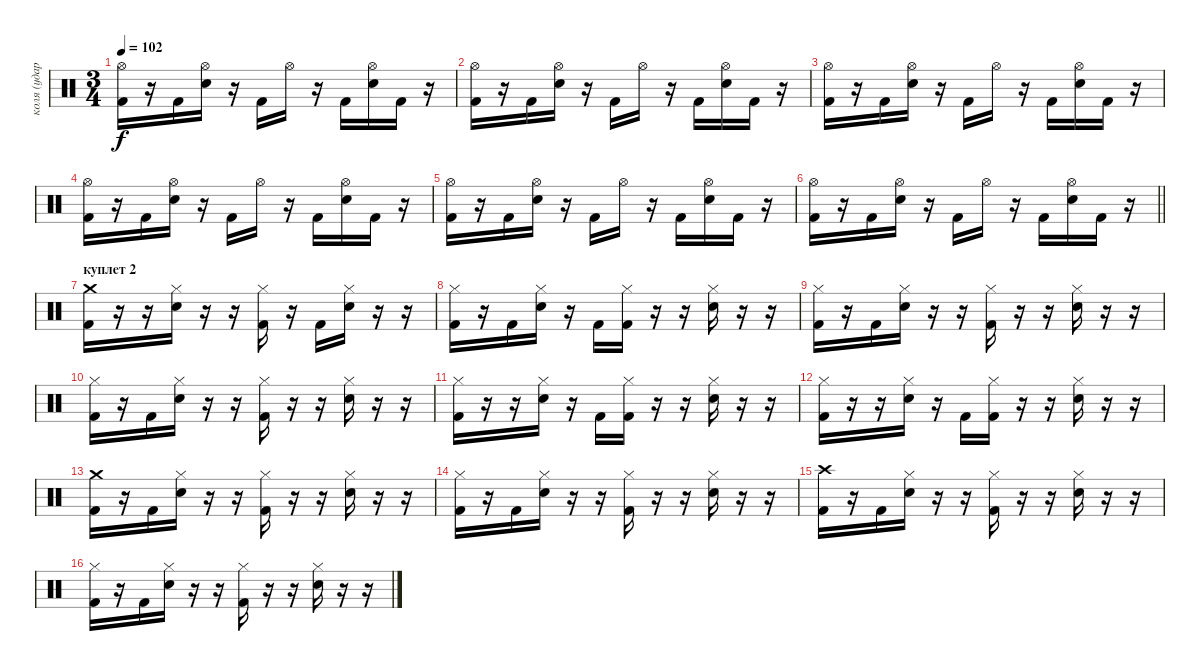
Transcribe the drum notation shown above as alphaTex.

\track ("коля (ударные)" "коля (удар") {instrument percussion}
\staff {score}
\articulation defaults
\ts (3 4)
\tempo 102
\clef neutral
\ks c
("Kick (hit) 2" "Hi-Hat (open)").16{dy f} r.16 "Kick (hit) 2".16 ("Snare (hit) 2" "Hi-Hat (open)").16 r.16 "Kick (hit) 2".16 "Hi-Hat (open)".16 r.16 "Kick (hit) 2".16 ("Snare (hit) 2" "Hi-Hat (open)").16 "Kick (hit) 2".16 r.16 |
("Kick (hit) 2" "Hi-Hat (open)").16 r.16 "Kick (hit) 2".16 ("Snare (hit) 2" "Hi-Hat (open)").16 r.16 "Kick (hit) 2".16 "Hi-Hat (open)".16 r.16 "Kick (hit) 2".16 ("Snare (hit) 2" "Hi-Hat (open)").16 "Kick (hit) 2".16 r.16 |
("Kick (hit) 2" "Hi-Hat (open)").16 r.16 "Kick (hit) 2".16 ("Snare (hit) 2" "Hi-Hat (open)").16 r.16 "Kick (hit) 2".16 "Hi-Hat (open)".16 r.16 "Kick (hit) 2".16 ("Snare (hit) 2" "Hi-Hat (open)").16 "Kick (hit) 2".16 r.16 |
("Kick (hit) 2" "Hi-Hat (open)").16 r.16 "Kick (hit) 2".16 ("Snare (hit) 2" "Hi-Hat (open)").16 r.16 "Kick (hit) 2".16 "Hi-Hat (open)".16 r.16 "Kick (hit) 2".16 ("Snare (hit) 2" "Hi-Hat (open)").16 "Kick (hit) 2".16 r.16 |
("Kick (hit) 2" "Hi-Hat (open)").16 r.16 "Kick (hit) 2".16 ("Snare (hit) 2" "Hi-Hat (open)").16 r.16 "Kick (hit) 2".16 "Hi-Hat (open)".16 r.16 "Kick (hit) 2".16 ("Snare (hit) 2" "Hi-Hat (open)").16 "Kick (hit) 2".16 r.16 |
\barLineRight lightlight
("Kick (hit) 2" "Hi-Hat (open)").16 r.16 "Kick (hit) 2".16 ("Snare (hit) 2" "Hi-Hat (open)").16 r.16 "Kick (hit) 2".16 "Hi-Hat (open)".16 r.16 "Kick (hit) 2".16 ("Snare (hit) 2" "Hi-Hat (open)").16 "Kick (hit) 2".16 r.16 |
\section ("" "куплет 2")
("Kick (hit) 2" "Crash medium (hit)").16 r.16 r.16 ("Snare (hit) 2" "Hi-Hat (closed)").16 r.16 r.16 ("Kick (hit) 2" "Hi-Hat (closed)").16 r.16 "Kick (hit) 2".16 ("Snare (hit) 2" "Hi-Hat (closed)").16 r.16 r.16 |
("Kick (hit) 2" "Hi-Hat (closed)").16 r.16 "Kick (hit) 2".16 ("Snare (hit) 2" "Hi-Hat (closed)").16 r.16 "Kick (hit) 2".16 ("Kick (hit) 2" "Hi-Hat (closed)").16 r.16 r.16 ("Snare (hit) 2" "Hi-Hat (closed)").16 r.16 r.16 |
("Kick (hit) 2" "Hi-Hat (closed)").16 r.16 "Kick (hit) 2".16 ("Snare (hit) 2" "Hi-Hat (closed)").16 r.16 r.16 ("Kick (hit) 2" "Hi-Hat (closed)").16 r.16 r.16 ("Snare (hit) 2" "Hi-Hat (closed)").16 r.16 r.16 |
("Kick (hit) 2" "Hi-Hat (closed)").16 r.16 "Kick (hit) 2".16 ("Snare (hit) 2" "Hi-Hat (closed)").16 r.16 r.16 ("Kick (hit) 2" "Hi-Hat (closed)").16 r.16 r.16 ("Snare (hit) 2" "Hi-Hat (closed)").16 r.16 r.16 |
("Kick (hit) 2" "Hi-Hat (closed)").16 r.16 r.16 ("Snare (hit) 2" "Hi-Hat (closed)").16 r.16 "Kick (hit) 2".16 ("Kick (hit) 2" "Hi-Hat (closed)").16 r.16 r.16 ("Snare (hit) 2" "Hi-Hat (closed)").16 r.16 r.16 |
("Kick (hit) 2" "Hi-Hat (closed)").16 r.16 r.16 ("Snare (hit) 2" "Hi-Hat (closed)").16 r.16 "Kick (hit) 2".16 ("Kick (hit) 2" "Hi-Hat (closed)").16 r.16 r.16 ("Snare (hit) 2" "Hi-Hat (closed)").16 r.16 r.16 |
("Kick (hit) 2" "Crash medium (hit)").16 r.16 "Kick (hit) 2".16 ("Snare (hit) 2" "Hi-Hat (closed)").16 r.16 r.16 ("Kick (hit) 2" "Hi-Hat (closed)").16 r.16 r.16 ("Snare (hit) 2" "Hi-Hat (closed)").16 r.16 r.16 |
("Kick (hit) 2" "Hi-Hat (closed)").16 r.16 "Kick (hit) 2".16 ("Snare (hit) 2" "Hi-Hat (closed)").16 r.16 r.16 ("Kick (hit) 2" "Hi-Hat (closed)").16 r.16 r.16 ("Snare (hit) 2" "Hi-Hat (closed)").16 r.16 r.16 |
("Kick (hit) 2" "Crash high (hit)").16 r.16 "Kick (hit) 2".16 ("Snare (hit) 2" "Hi-Hat (closed)").16 r.16 r.16 ("Kick (hit) 2" "Hi-Hat (closed)").16 r.16 r.16 ("Snare (hit) 2" "Hi-Hat (closed)").16 r.16 r.16 |
("Kick (hit) 2" "Hi-Hat (closed)").16 r.16 "Kick (hit) 2".16 ("Snare (hit) 2" "Hi-Hat (closed)").16 r.16 r.16 ("Kick (hit) 2" "Hi-Hat (closed)").16 r.16 r.16 ("Snare (hit) 2" "Hi-Hat (closed)").16 r.16 r.16
